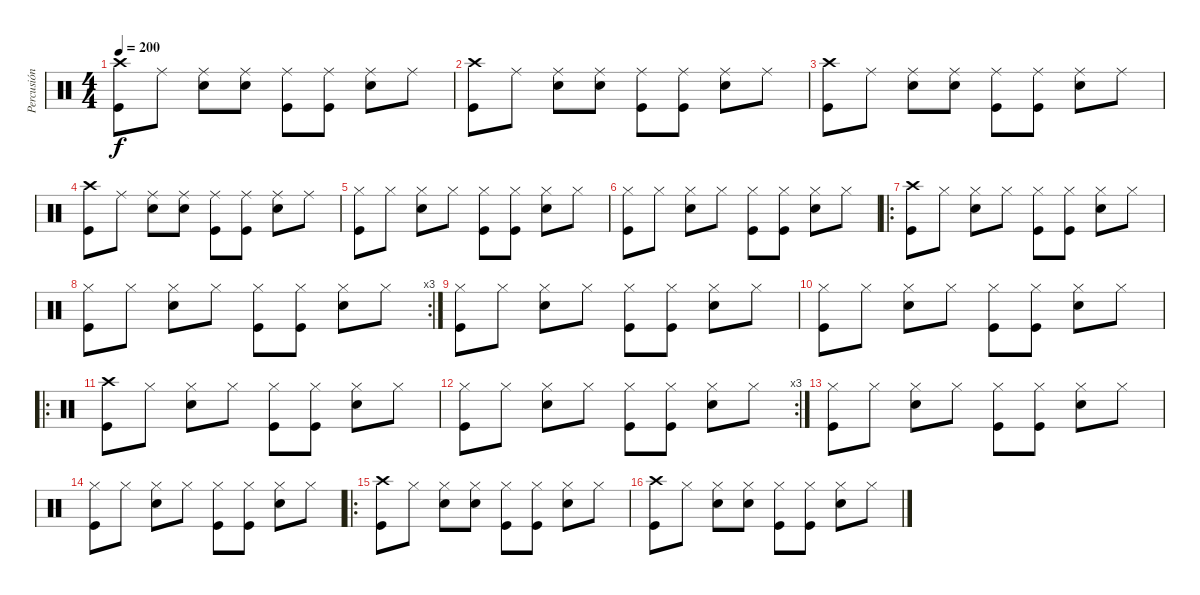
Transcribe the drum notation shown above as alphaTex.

\track ("Percusión" "Percusión") {instrument percussion}
\staff {score}
\articulation defaults
\ts (4 4)
\tempo 200
\clef neutral
\ks c
("Crash high (hit)" "Kick (hit)").8{dy f} "Ride (middle)".8 ("Ride (middle)" "Snare (hit) 2").8 ("Ride (middle)" "Snare (hit) 2").8 ("Ride (middle)" "Kick (hit)").8 ("Ride (middle)" "Kick (hit)").8 ("Ride (middle)" "Snare (hit) 2").8 "Ride (middle)".8 |
("Crash high (hit)" "Kick (hit)").8 "Ride (middle)".8 ("Ride (middle)" "Snare (hit) 2").8 ("Ride (middle)" "Snare (hit) 2").8 ("Ride (middle)" "Kick (hit)").8 ("Ride (middle)" "Kick (hit)").8 ("Ride (middle)" "Snare (hit) 2").8 "Ride (middle)".8 |
("Crash high (hit)" "Kick (hit)").8 "Ride (middle)".8 ("Ride (middle)" "Snare (hit) 2").8 ("Ride (middle)" "Snare (hit) 2").8 ("Ride (middle)" "Kick (hit)").8 ("Ride (middle)" "Kick (hit)").8 ("Ride (middle)" "Snare (hit) 2").8 "Ride (middle)".8 |
("Crash high (hit)" "Kick (hit)").8 "Ride (middle)".8 ("Ride (middle)" "Snare (hit) 2").8 ("Ride (middle)" "Snare (hit) 2").8 ("Ride (middle)" "Kick (hit)").8 ("Ride (middle)" "Kick (hit)").8 ("Ride (middle)" "Snare (hit) 2").8 "Ride (middle)".8 |
("Hi-Hat (closed)" "Kick (hit)").8 "Hi-Hat (closed)".8 ("Hi-Hat (closed)" "Snare (hit) 2").8 "Hi-Hat (closed)".8 ("Hi-Hat (closed)" "Kick (hit)").8 ("Hi-Hat (closed)" "Kick (hit)").8 ("Hi-Hat (closed)" "Snare (hit) 2").8 "Hi-Hat (closed)".8 |
("Hi-Hat (closed)" "Kick (hit)").8 "Hi-Hat (closed)".8 ("Hi-Hat (closed)" "Snare (hit) 2").8 "Hi-Hat (closed)".8 ("Hi-Hat (closed)" "Kick (hit)").8 ("Hi-Hat (closed)" "Kick (hit)").8 ("Hi-Hat (closed)" "Snare (hit) 2").8 "Hi-Hat (closed)".8 |
\ro
("Crash high (hit)" "Kick (hit)").8 "Hi-Hat (closed)".8 ("Hi-Hat (closed)" "Snare (hit) 2").8 "Hi-Hat (closed)".8 ("Hi-Hat (closed)" "Kick (hit)").8 ("Hi-Hat (closed)" "Kick (hit)").8 ("Hi-Hat (closed)" "Snare (hit) 2").8 "Hi-Hat (closed)".8 |
\rc 3
("Hi-Hat (closed)" "Kick (hit)").8 "Hi-Hat (closed)".8 ("Hi-Hat (closed)" "Snare (hit) 2").8 "Hi-Hat (closed)".8 ("Hi-Hat (closed)" "Kick (hit)").8 ("Hi-Hat (closed)" "Kick (hit)").8 ("Hi-Hat (closed)" "Snare (hit) 2").8 "Hi-Hat (closed)".8 |
("Hi-Hat (closed)" "Kick (hit)").8 "Hi-Hat (closed)".8 ("Hi-Hat (closed)" "Snare (hit) 2").8 "Hi-Hat (closed)".8 ("Hi-Hat (closed)" "Kick (hit)").8 ("Hi-Hat (closed)" "Kick (hit)").8 ("Hi-Hat (closed)" "Snare (hit) 2").8 "Hi-Hat (closed)".8 |
("Hi-Hat (closed)" "Kick (hit)").8 "Hi-Hat (closed)".8 ("Hi-Hat (closed)" "Snare (hit) 2").8 "Hi-Hat (closed)".8 ("Hi-Hat (closed)" "Kick (hit)").8 ("Hi-Hat (closed)" "Kick (hit)").8 ("Hi-Hat (closed)" "Snare (hit) 2").8 "Hi-Hat (closed)".8 |
\ro
("Crash high (hit)" "Kick (hit)").8 "Hi-Hat (closed)".8 ("Hi-Hat (closed)" "Snare (hit) 2").8 "Hi-Hat (closed)".8 ("Hi-Hat (closed)" "Kick (hit)").8 ("Hi-Hat (closed)" "Kick (hit)").8 ("Hi-Hat (closed)" "Snare (hit) 2").8 "Hi-Hat (closed)".8 |
\rc 3
("Hi-Hat (closed)" "Kick (hit)").8 "Hi-Hat (closed)".8 ("Hi-Hat (closed)" "Snare (hit) 2").8 "Hi-Hat (closed)".8 ("Hi-Hat (closed)" "Kick (hit)").8 ("Hi-Hat (closed)" "Kick (hit)").8 ("Hi-Hat (closed)" "Snare (hit) 2").8 "Hi-Hat (closed)".8 |
("Hi-Hat (closed)" "Kick (hit)").8 "Hi-Hat (closed)".8 ("Hi-Hat (closed)" "Snare (hit) 2").8 "Hi-Hat (closed)".8 ("Hi-Hat (closed)" "Kick (hit)").8 ("Hi-Hat (closed)" "Kick (hit)").8 ("Hi-Hat (closed)" "Snare (hit) 2").8 "Hi-Hat (closed)".8 |
("Hi-Hat (closed)" "Kick (hit)").8 "Hi-Hat (closed)".8 ("Hi-Hat (closed)" "Snare (hit) 2").8 "Hi-Hat (closed)".8 ("Hi-Hat (closed)" "Kick (hit)").8 ("Hi-Hat (closed)" "Kick (hit)").8 ("Hi-Hat (closed)" "Snare (hit) 2").8 "Hi-Hat (closed)".8 |
\ro
("Crash high (hit)" "Kick (hit)").8 "Hi-Hat (closed)".8 ("Hi-Hat (closed)" "Snare (hit) 2").8 ("Hi-Hat (closed)" "Snare (hit) 2").8 ("Hi-Hat (closed)" "Kick (hit)").8 ("Hi-Hat (closed)" "Kick (hit)").8 ("Hi-Hat (closed)" "Snare (hit) 2").8 "Hi-Hat (closed)".8 |
("Crash high (hit)" "Kick (hit)").8 "Hi-Hat (closed)".8 ("Hi-Hat (closed)" "Snare (hit) 2").8 ("Hi-Hat (closed)" "Snare (hit) 2").8 ("Hi-Hat (closed)" "Kick (hit)").8 ("Hi-Hat (closed)" "Kick (hit)").8 ("Hi-Hat (closed)" "Snare (hit) 2").8 "Hi-Hat (closed)".8
